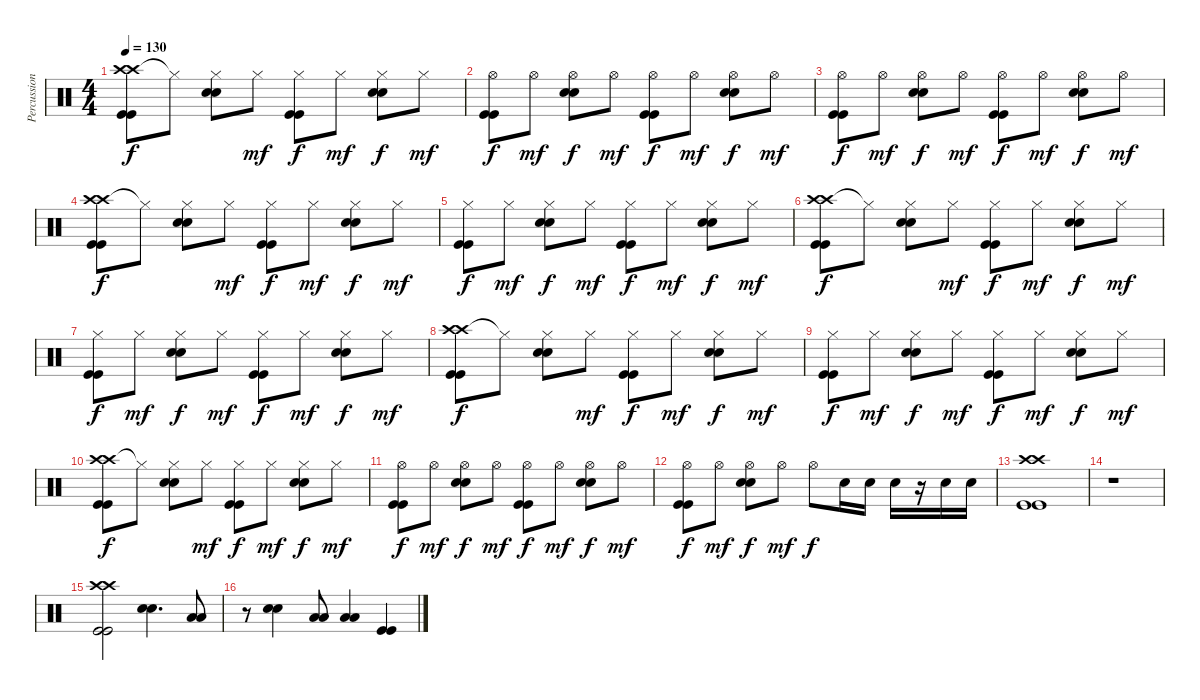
\track ("Percussions" "Percussion") {instrument percussion}
\staff {score}
\articulation defaults
\ts (4 4)
\tempo 130
\clef neutral
\ks c
("Crash high (hit)" "Crash high (hit)" "Kick (hit)" "Kick (hit)").8{dy f} "Hi-Hat (closed)"{t}.8 ("Hi-Hat (closed)" "Snare (hit) 2" "Snare (hit) 2").8 "Hi-Hat (closed)".8{dy mf} ("Hi-Hat (closed)" "Kick (hit)" "Kick (hit)").8{dy f} "Hi-Hat (closed)".8{dy mf} ("Hi-Hat (closed)" "Snare (hit) 2" "Snare (hit) 2").8{dy f} "Hi-Hat (closed)".8{dy mf} |
("Hi-Hat (open)" "Kick (hit)" "Kick (hit)").8{dy f} "Hi-Hat (open)".8{dy mf} ("Hi-Hat (open)" "Snare (hit) 2" "Snare (hit) 2").8{dy f} "Hi-Hat (open)".8{dy mf} ("Hi-Hat (open)" "Kick (hit)" "Kick (hit)").8{dy f} "Hi-Hat (open)".8{dy mf} ("Hi-Hat (open)" "Snare (hit) 2" "Snare (hit) 2").8{dy f} "Hi-Hat (open)".8{dy mf} |
("Hi-Hat (open)" "Kick (hit)" "Kick (hit)").8{dy f} "Hi-Hat (open)".8{dy mf} ("Hi-Hat (open)" "Snare (hit) 2" "Snare (hit) 2").8{dy f} "Hi-Hat (open)".8{dy mf} ("Hi-Hat (open)" "Kick (hit)" "Kick (hit)").8{dy f} "Hi-Hat (open)".8{dy mf} ("Hi-Hat (open)" "Snare (hit) 2" "Snare (hit) 2").8{dy f} "Hi-Hat (open)".8{dy mf} |
("Crash high (hit)" "Crash high (hit)" "Kick (hit)" "Kick (hit)").8{dy f} "Hi-Hat (closed)"{t}.8 ("Hi-Hat (closed)" "Snare (hit) 2" "Snare (hit) 2").8 "Hi-Hat (closed)".8{dy mf} ("Hi-Hat (closed)" "Kick (hit)" "Kick (hit)").8{dy f} "Hi-Hat (closed)".8{dy mf} ("Hi-Hat (closed)" "Snare (hit) 2" "Snare (hit) 2").8{dy f} "Hi-Hat (closed)".8{dy mf} |
("Hi-Hat (closed)" "Kick (hit)" "Kick (hit)").8{dy f} "Hi-Hat (closed)".8{dy mf} ("Hi-Hat (closed)" "Snare (hit) 2" "Snare (hit) 2").8{dy f} "Hi-Hat (closed)".8{dy mf} ("Hi-Hat (closed)" "Kick (hit)" "Kick (hit)").8{dy f} "Hi-Hat (closed)".8{dy mf} ("Hi-Hat (closed)" "Snare (hit) 2" "Snare (hit) 2").8{dy f} "Hi-Hat (closed)".8{dy mf} |
("Crash high (hit)" "Crash high (hit)" "Kick (hit)" "Kick (hit)").8{dy f} "Hi-Hat (closed)"{t}.8 ("Hi-Hat (closed)" "Snare (hit) 2" "Snare (hit) 2").8 "Hi-Hat (closed)".8{dy mf} ("Hi-Hat (closed)" "Kick (hit)" "Kick (hit)").8{dy f} "Hi-Hat (closed)".8{dy mf} ("Hi-Hat (closed)" "Snare (hit) 2" "Snare (hit) 2").8{dy f} "Hi-Hat (closed)".8{dy mf} |
("Hi-Hat (closed)" "Kick (hit)" "Kick (hit)").8{dy f} "Hi-Hat (closed)".8{dy mf} ("Hi-Hat (closed)" "Snare (hit) 2" "Snare (hit) 2").8{dy f} "Hi-Hat (closed)".8{dy mf} ("Hi-Hat (closed)" "Kick (hit)" "Kick (hit)").8{dy f} "Hi-Hat (closed)".8{dy mf} ("Hi-Hat (closed)" "Snare (hit) 2" "Snare (hit) 2").8{dy f} "Hi-Hat (closed)".8{dy mf} |
("Crash high (hit)" "Crash high (hit)" "Kick (hit)" "Kick (hit)").8{dy f} "Hi-Hat (closed)"{t}.8 ("Hi-Hat (closed)" "Snare (hit) 2" "Snare (hit) 2").8 "Hi-Hat (closed)".8{dy mf} ("Hi-Hat (closed)" "Kick (hit)" "Kick (hit)").8{dy f} "Hi-Hat (closed)".8{dy mf} ("Hi-Hat (closed)" "Snare (hit) 2" "Snare (hit) 2").8{dy f} "Hi-Hat (closed)".8{dy mf} |
("Hi-Hat (closed)" "Kick (hit)" "Kick (hit)").8{dy f} "Hi-Hat (closed)".8{dy mf} ("Hi-Hat (closed)" "Snare (hit) 2" "Snare (hit) 2").8{dy f} "Hi-Hat (closed)".8{dy mf} ("Hi-Hat (closed)" "Kick (hit)" "Kick (hit)").8{dy f} "Hi-Hat (closed)".8{dy mf} ("Hi-Hat (closed)" "Snare (hit) 2" "Snare (hit) 2").8{dy f} "Hi-Hat (closed)".8{dy mf} |
("Crash high (hit)" "Crash high (hit)" "Kick (hit)" "Kick (hit)").8{dy f} "Hi-Hat (closed)"{t}.8 ("Hi-Hat (closed)" "Snare (hit) 2" "Snare (hit) 2").8 "Hi-Hat (closed)".8{dy mf} ("Hi-Hat (closed)" "Kick (hit)" "Kick (hit)").8{dy f} "Hi-Hat (closed)".8{dy mf} ("Hi-Hat (closed)" "Snare (hit) 2" "Snare (hit) 2").8{dy f} "Hi-Hat (closed)".8{dy mf} |
("Hi-Hat (open)" "Kick (hit)" "Kick (hit)").8{dy f} "Hi-Hat (open)".8{dy mf} ("Hi-Hat (open)" "Snare (hit) 2" "Snare (hit) 2").8{dy f} "Hi-Hat (open)".8{dy mf} ("Hi-Hat (open)" "Kick (hit)" "Kick (hit)").8{dy f} "Hi-Hat (open)".8{dy mf} ("Hi-Hat (open)" "Snare (hit) 2" "Snare (hit) 2").8{dy f} "Hi-Hat (open)".8{dy mf} |
("Hi-Hat (open)" "Kick (hit)" "Kick (hit)").8{dy f} "Hi-Hat (open)".8{dy mf} ("Hi-Hat (open)" "Snare (hit) 2" "Snare (hit) 2").8{dy f} "Hi-Hat (open)".8{dy mf} "Hi-Hat (open)".8{dy f} "Snare (hit) 2".16 "Snare (hit) 2".16 "Snare (hit) 2".16 r.16 "Snare (hit) 2".16 "Snare (hit) 2".16 |
("Crash high (hit)" "Crash high (hit)" "Kick (hit)" "Kick (hit)").1 |
r.1 |
("Crash high (hit)" "Crash high (hit)" "Kick (hit)" "Kick (hit)").2 ("Snare (hit) 2" "Snare (hit) 2").4{d} ("Low Tom (hit)" "Low Tom (hit)").8 |
r.8 ("Snare (hit) 2" "Snare (hit) 2").4 ("Low Tom (hit)" "Low Tom (hit)").8 ("Low Tom (hit)" "Low Tom (hit)").4 ("Kick (hit)" "Kick (hit)").4
